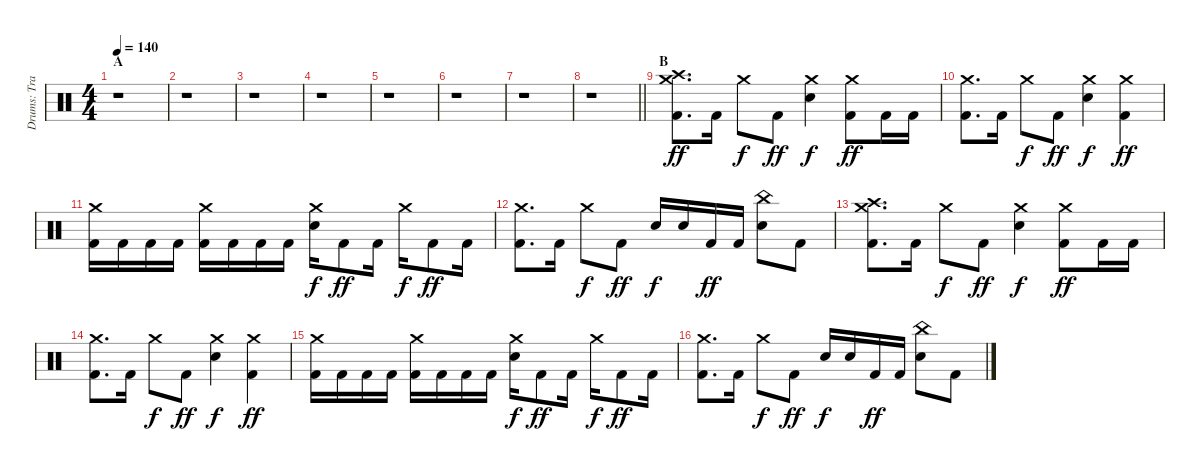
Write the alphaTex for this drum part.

\track ("Drums: Travis Clarke" "Drums: Tra") {instrument percussion}
\staff {score}
\articulation defaults
\ts (4 4)
\section ("" "A")
\tempo 140
\clef neutral
\ks c
r.1{dy ff} |
r.1 |
r.1 |
r.1 |
r.1 |
r.1 |
r.1 |
\barLineRight lightlight
r.1 |
\section ("" "B")
("Kick (hit) 2" "Crash high (hit)" "Crash medium (hit)").8{d} "Kick (hit) 2".16 "Crash medium (hit)".8{dy f} "Kick (hit) 2".8{dy ff} ("Snare (hit) 2" "Crash medium (hit)").4{dy f} ("Kick (hit) 2" "Crash medium (hit)").8{dy ff} "Kick (hit) 2".16 "Kick (hit) 2".16 |
("Kick (hit) 2" "Crash medium (hit)").8{d} "Kick (hit) 2".16 "Crash medium (hit)".8{dy f} "Kick (hit) 2".8{dy ff} ("Snare (hit) 2" "Crash medium (hit)").4{dy f} ("Kick (hit) 2" "Crash medium (hit)").4{dy ff} |
("Kick (hit) 2" "Crash medium (hit)").16 "Kick (hit) 2".16 "Kick (hit) 2".16 "Kick (hit) 2".16 ("Kick (hit) 2" "Crash medium (hit)").16 "Kick (hit) 2".16 "Kick (hit) 2".16 "Kick (hit) 2".16 ("Snare (hit) 2" "Crash medium (hit)").16{dy f} "Kick (hit) 2".8{dy ff} "Kick (hit) 2".16 "Crash medium (hit)".16{dy f} "Kick (hit) 2".8{dy ff} "Kick (hit) 2".16 |
("Kick (hit) 2" "Crash medium (hit)").8{d} "Kick (hit) 2".16 "Crash medium (hit)".8{dy f} "Kick (hit) 2".8{dy ff} "Snare (hit) 2".16{dy f} "Snare (hit) 2".16 "Kick (hit) 2".16{dy ff} "Kick (hit) 2".16 ("Snare (hit) 2" "China (hit)").8 "Kick (hit) 2".8 |
("Kick (hit) 2" "Crash high (hit)" "Crash medium (hit)").8{d} "Kick (hit) 2".16 "Crash medium (hit)".8{dy f} "Kick (hit) 2".8{dy ff} ("Snare (hit) 2" "Crash medium (hit)").4{dy f} ("Kick (hit) 2" "Crash medium (hit)").8{dy ff} "Kick (hit) 2".16 "Kick (hit) 2".16 |
("Kick (hit) 2" "Crash medium (hit)").8{d} "Kick (hit) 2".16 "Crash medium (hit)".8{dy f} "Kick (hit) 2".8{dy ff} ("Snare (hit) 2" "Crash medium (hit)").4{dy f} ("Kick (hit) 2" "Crash medium (hit)").4{dy ff} |
("Kick (hit) 2" "Crash medium (hit)").16 "Kick (hit) 2".16 "Kick (hit) 2".16 "Kick (hit) 2".16 ("Kick (hit) 2" "Crash medium (hit)").16 "Kick (hit) 2".16 "Kick (hit) 2".16 "Kick (hit) 2".16 ("Snare (hit) 2" "Crash medium (hit)").16{dy f} "Kick (hit) 2".8{dy ff} "Kick (hit) 2".16 "Crash medium (hit)".16{dy f} "Kick (hit) 2".8{dy ff} "Kick (hit) 2".16 |
("Kick (hit) 2" "Crash medium (hit)").8{d} "Kick (hit) 2".16 "Crash medium (hit)".8{dy f} "Kick (hit) 2".8{dy ff} "Snare (hit) 2".16{dy f} "Snare (hit) 2".16 "Kick (hit) 2".16{dy ff} "Kick (hit) 2".16 ("Snare (hit) 2" "China (hit)").8 "Kick (hit) 2".8
